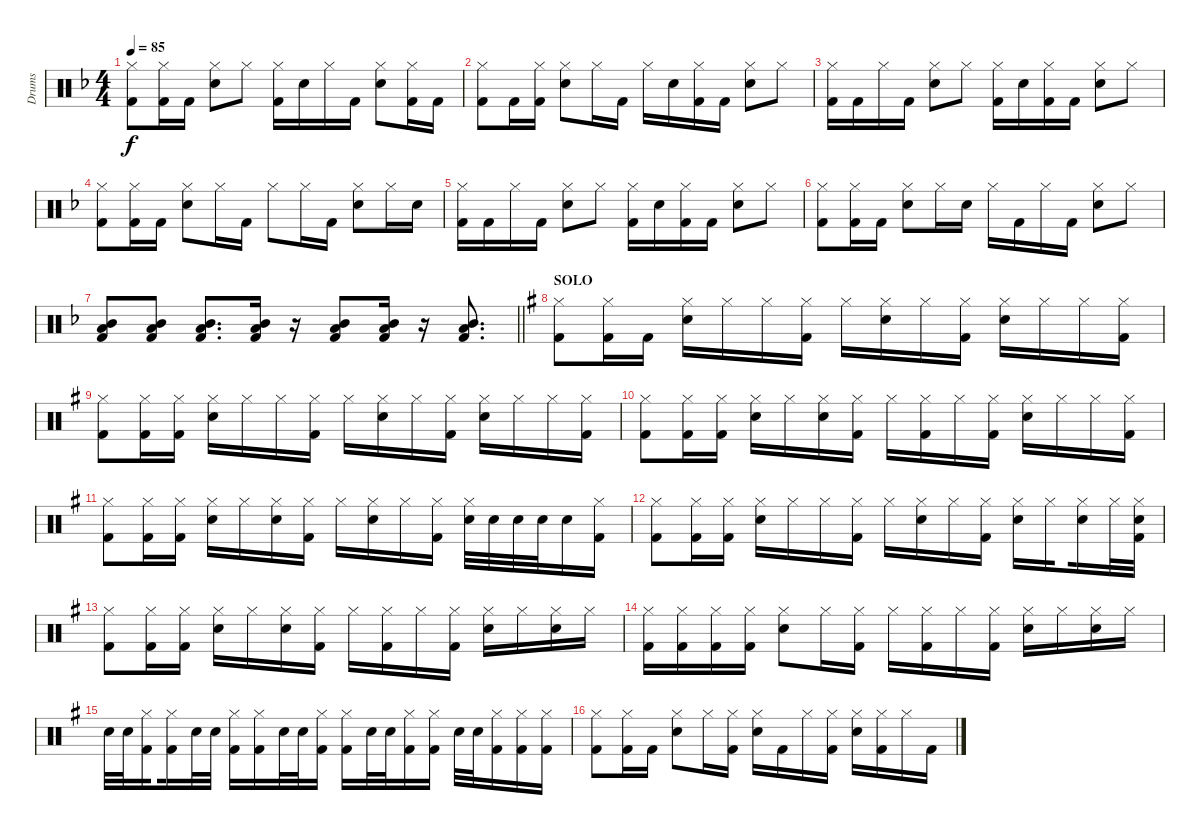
\track ("Drums" "Drums") {instrument percussion}
\staff {score}
\articulation defaults
\ts (4 4)
\tempo 85
\clef neutral
\ks dminor
("Hi-Hat (closed)" "Kick (hit) 2").8{dy f} ("Hi-Hat (closed)" "Kick (hit) 2").16 "Kick (hit) 2".16 ("Hi-Hat (closed)" "Electric Snare (hit)").8 "Hi-Hat (closed)".8 ("Hi-Hat (closed)" "Kick (hit) 2").16 "Electric Snare (hit)".16 "Hi-Hat (closed)".16 "Kick (hit) 2".16 ("Hi-Hat (closed)" "Electric Snare (hit)").8 ("Hi-Hat (closed)" "Kick (hit) 2").16 "Kick (hit) 2".16 |
("Hi-Hat (closed)" "Kick (hit) 2").8 "Kick (hit) 2".16 ("Hi-Hat (closed)" "Kick (hit) 2").16 ("Hi-Hat (closed)" "Electric Snare (hit)").8 "Hi-Hat (closed)".16 "Kick (hit) 2".16 "Hi-Hat (closed)".16 "Electric Snare (hit)".16 ("Hi-Hat (closed)" "Kick (hit) 2").16 "Kick (hit) 2".16 ("Hi-Hat (closed)" "Electric Snare (hit)").8 "Hi-Hat (closed)".8 |
("Hi-Hat (closed)" "Kick (hit) 2").16 "Kick (hit) 2".16 "Hi-Hat (closed)".16 "Kick (hit) 2".16 ("Hi-Hat (closed)" "Electric Snare (hit)").8 "Hi-Hat (closed)".8 ("Hi-Hat (closed)" "Kick (hit) 2").16 "Electric Snare (hit)".16 ("Hi-Hat (closed)" "Kick (hit) 2").16 "Kick (hit) 2".16 ("Hi-Hat (closed)" "Electric Snare (hit)").8 "Hi-Hat (closed)".8 |
("Hi-Hat (closed)" "Kick (hit) 2").8 ("Hi-Hat (closed)" "Kick (hit) 2").16 "Kick (hit) 2".16 ("Hi-Hat (closed)" "Electric Snare (hit)").8 "Hi-Hat (closed)".16 "Kick (hit) 2".16 "Hi-Hat (closed)".8 "Hi-Hat (closed)".16 "Kick (hit) 2".16 ("Hi-Hat (closed)" "Electric Snare (hit)").8 "Hi-Hat (closed)".16 "Electric Snare (hit)".16 |
("Hi-Hat (closed)" "Kick (hit) 2").16 "Kick (hit) 2".16 "Hi-Hat (closed)".16 "Kick (hit) 2".16 ("Hi-Hat (closed)" "Electric Snare (hit)").8 "Hi-Hat (closed)".8 ("Hi-Hat (closed)" "Kick (hit) 2").16 "Electric Snare (hit)".16 ("Hi-Hat (closed)" "Kick (hit) 2").16 "Kick (hit) 2".16 ("Hi-Hat (closed)" "Electric Snare (hit)").8 "Hi-Hat (closed)".8 |
("Hi-Hat (closed)" "Kick (hit) 2").8 ("Hi-Hat (closed)" "Kick (hit) 2").16 "Kick (hit) 2".16 ("Hi-Hat (closed)" "Electric Snare (hit)").8 "Hi-Hat (closed)".16 "Electric Snare (hit)".16 "Hi-Hat (closed)".16 "Kick (hit) 2".16 "Hi-Hat (closed)".16 "Kick (hit) 2".16 ("Hi-Hat (closed)" "Electric Snare (hit)").8 "Hi-Hat (closed)".8 |
\barLineRight lightlight
("Low Tom (hit)" "Mid Tom (hit)" "Kick (hit) 2").8 ("Low Tom (hit)" "Mid Tom (hit)" "Kick (hit) 2").8 ("Low Tom (hit)" "Mid Tom (hit)" "Kick (hit) 2").8{d} ("Low Tom (hit)" "Mid Tom (hit)" "Kick (hit) 2").16 r.16 ("Low Tom (hit)" "Mid Tom (hit)" "Kick (hit) 2").8 ("Low Tom (hit)" "Mid Tom (hit)" "Kick (hit) 2").16 r.16 ("Low Tom (hit)" "Mid Tom (hit)" "Kick (hit) 2").8{d} |
\section ("" "SOLO")
\ks eminor
("Hi-Hat (closed)" "Kick (hit) 2").8 ("Hi-Hat (closed)" "Kick (hit) 2").16 "Kick (hit) 2".16 ("Hi-Hat (closed)" "Electric Snare (hit)").16 "Hi-Hat (closed)".16 "Hi-Hat (closed)".16 ("Hi-Hat (closed)" "Kick (hit) 2").16 "Hi-Hat (closed)".16 ("Hi-Hat (closed)" "Electric Snare (hit)").16 "Hi-Hat (closed)".16 ("Hi-Hat (closed)" "Kick (hit) 2").16 ("Hi-Hat (closed)" "Electric Snare (hit)").16 "Hi-Hat (closed)".16 "Hi-Hat (closed)".16 ("Hi-Hat (closed)" "Kick (hit) 2").16 |
("Hi-Hat (closed)" "Kick (hit) 2").8 ("Hi-Hat (closed)" "Kick (hit) 2").16 ("Hi-Hat (closed)" "Kick (hit) 2").16 ("Hi-Hat (closed)" "Electric Snare (hit)").16 "Hi-Hat (closed)".16 "Hi-Hat (closed)".16 ("Hi-Hat (closed)" "Kick (hit) 2").16 "Hi-Hat (closed)".16 ("Hi-Hat (closed)" "Electric Snare (hit)").16 "Hi-Hat (closed)".16 ("Hi-Hat (closed)" "Kick (hit) 2").16 ("Hi-Hat (closed)" "Electric Snare (hit)").16 "Hi-Hat (closed)".16 "Hi-Hat (closed)".16 ("Hi-Hat (closed)" "Kick (hit) 2").16 |
("Hi-Hat (closed)" "Kick (hit) 2").8 ("Hi-Hat (closed)" "Kick (hit) 2").16 ("Hi-Hat (closed)" "Kick (hit) 2").16 ("Hi-Hat (closed)" "Electric Snare (hit)").16 "Hi-Hat (closed)".16 ("Hi-Hat (closed)" "Electric Snare (hit)").16 ("Hi-Hat (closed)" "Kick (hit) 2").16 "Hi-Hat (closed)".16 ("Hi-Hat (closed)" "Kick (hit) 2").16 "Hi-Hat (closed)".16 ("Hi-Hat (closed)" "Kick (hit) 2").16 ("Hi-Hat (closed)" "Electric Snare (hit)").16 "Hi-Hat (closed)".16 "Hi-Hat (closed)".16 ("Hi-Hat (closed)" "Kick (hit) 2").16 |
("Hi-Hat (closed)" "Kick (hit) 2").8 ("Hi-Hat (closed)" "Kick (hit) 2").16 ("Hi-Hat (closed)" "Kick (hit) 2").16 ("Hi-Hat (closed)" "Electric Snare (hit)").16 "Hi-Hat (closed)".16 ("Hi-Hat (closed)" "Electric Snare (hit)").16 ("Hi-Hat (closed)" "Kick (hit) 2").16 "Hi-Hat (closed)".16 ("Hi-Hat (closed)" "Electric Snare (hit)").16 "Hi-Hat (closed)".16 ("Hi-Hat (closed)" "Kick (hit) 2").16 ("Hi-Hat (closed)" "Electric Snare (hit)").32 "Electric Snare (hit)".32 "Electric Snare (hit)".32 "Electric Snare (hit)".32{beam splitsecondary} "Electric Snare (hit)".16 ("Hi-Hat (closed)" "Kick (hit) 2").16 |
("Hi-Hat (closed)" "Kick (hit) 2").8 ("Hi-Hat (closed)" "Kick (hit) 2").16 ("Hi-Hat (closed)" "Kick (hit) 2").16 ("Hi-Hat (closed)" "Electric Snare (hit)").16 "Hi-Hat (closed)".16 "Hi-Hat (closed)".16 ("Hi-Hat (closed)" "Kick (hit) 2").16 "Hi-Hat (closed)".16 ("Hi-Hat (closed)" "Electric Snare (hit)").16 "Hi-Hat (closed)".16 ("Hi-Hat (closed)" "Kick (hit) 2").16 ("Hi-Hat (closed)" "Electric Snare (hit)").16 "Hi-Hat (closed)".16{beam splitsecondary} ("Hi-Hat (closed)" "Electric Snare (hit)").16 "Hi-Hat (closed)".32 ("Hi-Hat (closed)" "Electric Snare (hit)" "Kick (hit) 2").32 |
("Hi-Hat (closed)" "Kick (hit) 2").8 ("Hi-Hat (closed)" "Kick (hit) 2").16 ("Hi-Hat (closed)" "Kick (hit) 2").16 ("Hi-Hat (closed)" "Electric Snare (hit)").16 "Hi-Hat (closed)".16 ("Hi-Hat (closed)" "Electric Snare (hit)").16 ("Hi-Hat (closed)" "Kick (hit) 2").16 "Hi-Hat (closed)".16 ("Hi-Hat (closed)" "Kick (hit) 2").16 "Hi-Hat (closed)".16 ("Hi-Hat (closed)" "Kick (hit) 2").16 ("Hi-Hat (closed)" "Electric Snare (hit)").16 "Hi-Hat (closed)".16 ("Hi-Hat (closed)" "Electric Snare (hit)").16 "Hi-Hat (closed)".16 |
("Hi-Hat (closed)" "Kick (hit) 2").16 ("Hi-Hat (closed)" "Kick (hit) 2").16 ("Hi-Hat (closed)" "Kick (hit) 2").16 ("Hi-Hat (closed)" "Kick (hit) 2").16 ("Hi-Hat (closed)" "Electric Snare (hit)").8 "Hi-Hat (closed)".16 ("Hi-Hat (closed)" "Kick (hit) 2").16 "Hi-Hat (closed)".16 ("Hi-Hat (closed)" "Kick (hit) 2").16 "Hi-Hat (closed)".16 ("Hi-Hat (closed)" "Kick (hit) 2").16 ("Hi-Hat (closed)" "Electric Snare (hit)").16 "Hi-Hat (closed)".16 ("Hi-Hat (closed)" "Electric Snare (hit)").16 "Hi-Hat (closed)".16 |
"Electric Snare (hit)".32 "Electric Snare (hit)".32 ("Hi-Hat (closed)" "Kick (hit) 2").16{beam splitsecondary} ("Hi-Hat (closed)" "Kick (hit) 2").16 "Electric Snare (hit)".32 "Electric Snare (hit)".32 ("Hi-Hat (closed)" "Kick (hit) 2").16 ("Hi-Hat (closed)" "Kick (hit) 2").16 "Electric Snare (hit)".32 "Electric Snare (hit)".32 ("Hi-Hat (closed)" "Kick (hit) 2").16 ("Hi-Hat (closed)" "Kick (hit) 2").16 "Electric Snare (hit)".32 "Electric Snare (hit)".32 ("Hi-Hat (closed)" "Kick (hit) 2").16 ("Hi-Hat (closed)" "Kick (hit) 2").16 "Electric Snare (hit)".32 "Electric Snare (hit)".32 ("Hi-Hat (closed)" "Kick (hit) 2").16 ("Hi-Hat (closed)" "Kick (hit) 2").16 ("Hi-Hat (closed)" "Kick (hit) 2").16 |
("Hi-Hat (closed)" "Kick (hit) 2").8 ("Hi-Hat (closed)" "Kick (hit) 2").16 "Kick (hit) 2".16 ("Hi-Hat (closed)" "Electric Snare (hit)").8 "Hi-Hat (closed)".16 ("Hi-Hat (closed)" "Kick (hit) 2").16 ("Hi-Hat (closed)" "Electric Snare (hit)").16 "Kick (hit) 2".16 "Hi-Hat (closed)".16 ("Hi-Hat (closed)" "Kick (hit) 2").16 ("Hi-Hat (closed)" "Electric Snare (hit)").16 ("Hi-Hat (closed)" "Kick (hit) 2").16 "Hi-Hat (closed)".16 "Kick (hit) 2".16
